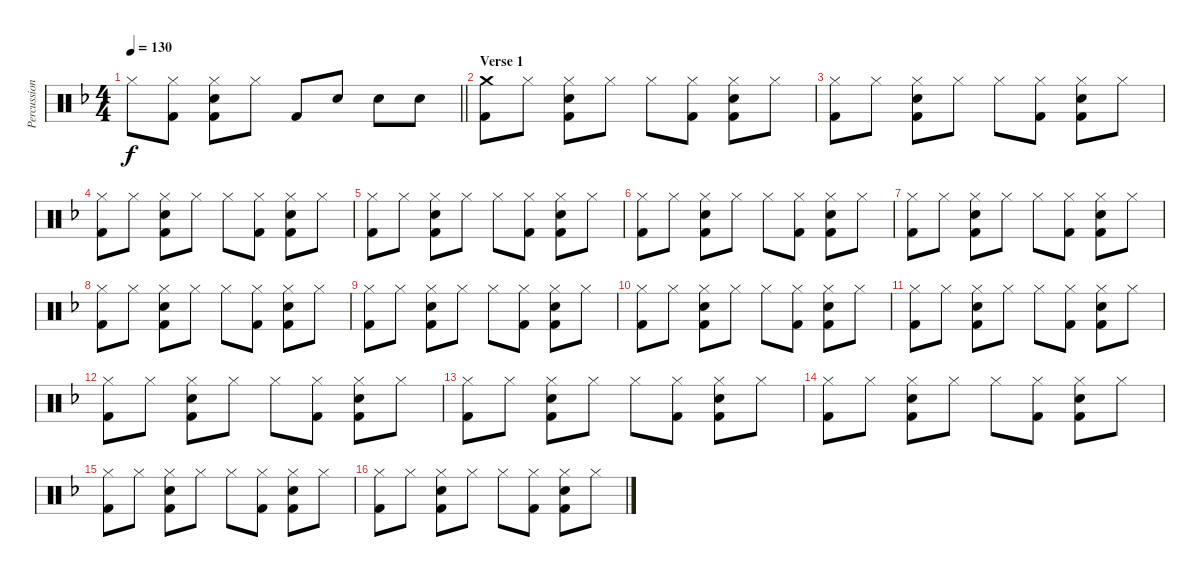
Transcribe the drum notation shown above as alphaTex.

\track ("Percussion" "Percussion") {instrument percussion}
\staff {score}
\articulation defaults
\ts (4 4)
\tempo 130
\clef neutral
\barLineRight lightlight
\ks f "Hi-Hat (closed)".8{dy f}
("Hi-Hat (closed)" "Kick (hit) 2").8 ("Hi-Hat (closed)" "Snare (hit) 2" "Kick (hit) 2").8 "Hi-Hat (closed)".8 "Kick (hit) 2".8 "Snare (hit) 2".8 "Snare (hit) 2".8 "Snare (hit) 2".8 |
\section ("" "Verse 1")
("Crash medium (hit)" "Kick (hit) 2").8 "Hi-Hat (closed)".8 ("Hi-Hat (closed)" "Snare (hit) 2" "Kick (hit) 2").8 "Hi-Hat (closed)".8 "Hi-Hat (closed)".8 ("Hi-Hat (closed)" "Kick (hit) 2").8 ("Hi-Hat (closed)" "Snare (hit) 2" "Kick (hit) 2").8 "Hi-Hat (closed)".8 |
("Hi-Hat (closed)" "Kick (hit) 2").8 "Hi-Hat (closed)".8 ("Hi-Hat (closed)" "Snare (hit) 2" "Kick (hit) 2").8 "Hi-Hat (closed)".8 "Hi-Hat (closed)".8 ("Hi-Hat (closed)" "Kick (hit) 2").8 ("Hi-Hat (closed)" "Snare (hit) 2" "Kick (hit) 2").8 "Hi-Hat (closed)".8 |
("Hi-Hat (closed)" "Kick (hit) 2").8 "Hi-Hat (closed)".8 ("Hi-Hat (closed)" "Snare (hit) 2" "Kick (hit) 2").8 "Hi-Hat (closed)".8 "Hi-Hat (closed)".8 ("Hi-Hat (closed)" "Kick (hit) 2").8 ("Hi-Hat (closed)" "Snare (hit) 2" "Kick (hit) 2").8 "Hi-Hat (closed)".8 |
("Hi-Hat (closed)" "Kick (hit) 2").8 "Hi-Hat (closed)".8 ("Hi-Hat (closed)" "Snare (hit) 2" "Kick (hit) 2").8 "Hi-Hat (closed)".8 "Hi-Hat (closed)".8 ("Hi-Hat (closed)" "Kick (hit) 2").8 ("Hi-Hat (closed)" "Snare (hit) 2" "Kick (hit) 2").8 "Hi-Hat (closed)".8 |
("Hi-Hat (closed)" "Kick (hit) 2").8 "Hi-Hat (closed)".8 ("Hi-Hat (closed)" "Snare (hit) 2" "Kick (hit) 2").8 "Hi-Hat (closed)".8 "Hi-Hat (closed)".8 ("Hi-Hat (closed)" "Kick (hit) 2").8 ("Hi-Hat (closed)" "Snare (hit) 2" "Kick (hit) 2").8 "Hi-Hat (closed)".8 |
("Hi-Hat (closed)" "Kick (hit) 2").8 "Hi-Hat (closed)".8 ("Hi-Hat (closed)" "Snare (hit) 2" "Kick (hit) 2").8 "Hi-Hat (closed)".8 "Hi-Hat (closed)".8 ("Hi-Hat (closed)" "Kick (hit) 2").8 ("Hi-Hat (closed)" "Snare (hit) 2" "Kick (hit) 2").8 "Hi-Hat (closed)".8 |
("Hi-Hat (closed)" "Kick (hit) 2").8 "Hi-Hat (closed)".8 ("Hi-Hat (closed)" "Snare (hit) 2" "Kick (hit) 2").8 "Hi-Hat (closed)".8 "Hi-Hat (closed)".8 ("Hi-Hat (closed)" "Kick (hit) 2").8 ("Hi-Hat (closed)" "Snare (hit) 2" "Kick (hit) 2").8 "Hi-Hat (closed)".8 |
("Hi-Hat (closed)" "Kick (hit) 2").8 "Hi-Hat (closed)".8 ("Hi-Hat (closed)" "Snare (hit) 2" "Kick (hit) 2").8 "Hi-Hat (closed)".8 "Hi-Hat (closed)".8 ("Hi-Hat (closed)" "Kick (hit) 2").8 ("Hi-Hat (closed)" "Snare (hit) 2" "Kick (hit) 2").8 "Hi-Hat (closed)".8 |
("Hi-Hat (closed)" "Kick (hit) 2").8 "Hi-Hat (closed)".8 ("Hi-Hat (closed)" "Snare (hit) 2" "Kick (hit) 2").8 "Hi-Hat (closed)".8 "Hi-Hat (closed)".8 ("Hi-Hat (closed)" "Kick (hit) 2").8 ("Hi-Hat (closed)" "Snare (hit) 2" "Kick (hit) 2").8 "Hi-Hat (closed)".8 |
("Hi-Hat (closed)" "Kick (hit) 2").8 "Hi-Hat (closed)".8 ("Hi-Hat (closed)" "Snare (hit) 2" "Kick (hit) 2").8 "Hi-Hat (closed)".8 "Hi-Hat (closed)".8 ("Hi-Hat (closed)" "Kick (hit) 2").8 ("Hi-Hat (closed)" "Snare (hit) 2" "Kick (hit) 2").8 "Hi-Hat (closed)".8 |
("Hi-Hat (closed)" "Kick (hit) 2").8 "Hi-Hat (closed)".8 ("Hi-Hat (closed)" "Snare (hit) 2" "Kick (hit) 2").8 "Hi-Hat (closed)".8 "Hi-Hat (closed)".8 ("Hi-Hat (closed)" "Kick (hit) 2").8 ("Hi-Hat (closed)" "Snare (hit) 2" "Kick (hit) 2").8 "Hi-Hat (closed)".8 |
("Hi-Hat (closed)" "Kick (hit) 2").8 "Hi-Hat (closed)".8 ("Hi-Hat (closed)" "Snare (hit) 2" "Kick (hit) 2").8 "Hi-Hat (closed)".8 "Hi-Hat (closed)".8 ("Hi-Hat (closed)" "Kick (hit) 2").8 ("Hi-Hat (closed)" "Snare (hit) 2" "Kick (hit) 2").8 "Hi-Hat (closed)".8 |
("Hi-Hat (closed)" "Kick (hit) 2").8 "Hi-Hat (closed)".8 ("Hi-Hat (closed)" "Snare (hit) 2" "Kick (hit) 2").8 "Hi-Hat (closed)".8 "Hi-Hat (closed)".8 ("Hi-Hat (closed)" "Kick (hit) 2").8 ("Hi-Hat (closed)" "Snare (hit) 2" "Kick (hit) 2").8 "Hi-Hat (closed)".8 |
("Hi-Hat (closed)" "Kick (hit) 2").8 "Hi-Hat (closed)".8 ("Hi-Hat (closed)" "Snare (hit) 2" "Kick (hit) 2").8 "Hi-Hat (closed)".8 "Hi-Hat (closed)".8 ("Hi-Hat (closed)" "Kick (hit) 2").8 ("Hi-Hat (closed)" "Snare (hit) 2" "Kick (hit) 2").8 "Hi-Hat (closed)".8 |
("Hi-Hat (closed)" "Kick (hit) 2").8 "Hi-Hat (closed)".8 ("Hi-Hat (closed)" "Snare (hit) 2" "Kick (hit) 2").8 "Hi-Hat (closed)".8 "Hi-Hat (closed)".8 ("Hi-Hat (closed)" "Kick (hit) 2").8 ("Hi-Hat (closed)" "Snare (hit) 2" "Kick (hit) 2").8 "Hi-Hat (closed)".8
